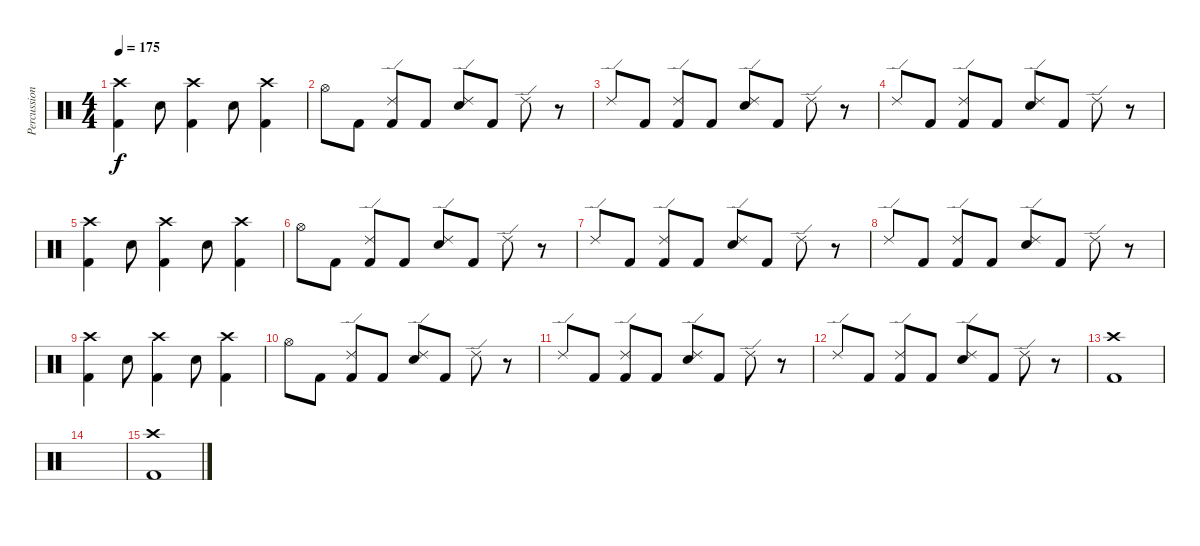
\track ("Percussion" "Percussion") {instrument percussion}
\staff {score}
\articulation defaults
\ts (4 4)
\tempo 175
\clef neutral
\ks c
("Crash high (hit)" "Kick (hit) 2").4{dy f} "Snare (hit) 2".8 ("Crash high (hit)" "Kick (hit) 2").4 "Snare (hit) 2".8 ("Crash high (hit)" "Kick (hit) 2").4 |
"Hi-Hat (open)".8 "Kick (hit) 2".8 ("Ride (edge) 2" "Kick (hit) 2").8 "Kick (hit) 2".8 ("Ride (edge) 2" "Snare (hit) 2").8 "Kick (hit) 2".8 "Ride (edge) 2".8 r.8 |
"Ride (edge) 2".8 "Kick (hit) 2".8 ("Ride (edge) 2" "Kick (hit) 2").8 "Kick (hit) 2".8 ("Ride (edge) 2" "Snare (hit) 2").8 "Kick (hit) 2".8 "Ride (edge) 2".8 r.8 |
"Ride (edge) 2".8 "Kick (hit) 2".8 ("Ride (edge) 2" "Kick (hit) 2").8 "Kick (hit) 2".8 ("Ride (edge) 2" "Snare (hit) 2").8 "Kick (hit) 2".8 "Ride (edge) 2".8 r.8 |
("Crash high (hit)" "Kick (hit) 2").4 "Snare (hit) 2".8 ("Crash high (hit)" "Kick (hit) 2").4 "Snare (hit) 2".8 ("Crash high (hit)" "Kick (hit) 2").4 |
"Hi-Hat (open)".8 "Kick (hit) 2".8 ("Ride (edge) 2" "Kick (hit) 2").8 "Kick (hit) 2".8 ("Ride (edge) 2" "Snare (hit) 2").8 "Kick (hit) 2".8 "Ride (edge) 2".8 r.8 |
"Ride (edge) 2".8 "Kick (hit) 2".8 ("Ride (edge) 2" "Kick (hit) 2").8 "Kick (hit) 2".8 ("Ride (edge) 2" "Snare (hit) 2").8 "Kick (hit) 2".8 "Ride (edge) 2".8 r.8 |
"Ride (edge) 2".8 "Kick (hit) 2".8 ("Ride (edge) 2" "Kick (hit) 2").8 "Kick (hit) 2".8 ("Ride (edge) 2" "Snare (hit) 2").8 "Kick (hit) 2".8 "Ride (edge) 2".8 r.8 |
("Crash high (hit)" "Kick (hit) 2").4 "Snare (hit) 2".8 ("Crash high (hit)" "Kick (hit) 2").4 "Snare (hit) 2".8 ("Crash high (hit)" "Kick (hit) 2").4 |
"Hi-Hat (open)".8 "Kick (hit) 2".8 ("Ride (edge) 2" "Kick (hit) 2").8 "Kick (hit) 2".8 ("Ride (edge) 2" "Snare (hit) 2").8 "Kick (hit) 2".8 "Ride (edge) 2".8 r.8 |
"Ride (edge) 2".8 "Kick (hit) 2".8 ("Ride (edge) 2" "Kick (hit) 2").8 "Kick (hit) 2".8 ("Ride (edge) 2" "Snare (hit) 2").8 "Kick (hit) 2".8 "Ride (edge) 2".8 r.8 |
"Ride (edge) 2".8 "Kick (hit) 2".8 ("Ride (edge) 2" "Kick (hit) 2").8 "Kick (hit) 2".8 ("Ride (edge) 2" "Snare (hit) 2").8 "Kick (hit) 2".8 "Ride (edge) 2".8 r.8 |
("Crash high (hit)" "Kick (hit) 2").1 |
|
("Crash high (hit)" "Kick (hit) 2").1
